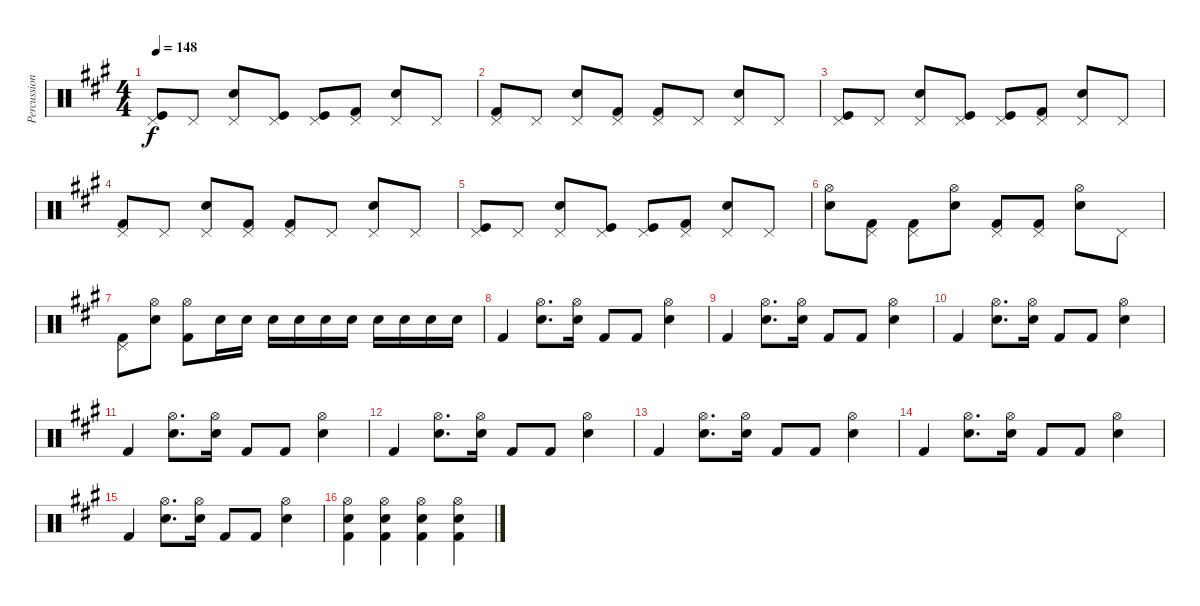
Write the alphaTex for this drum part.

\track ("Percussion" "Percussion") {instrument percussion}
\staff {score}
\articulation defaults
\ts (4 4)
\tempo 148
\clef neutral
\ks a
("Pedal Hi-Hat (hit)" "Kick (hit)").8{dy f} "Pedal Hi-Hat (hit)".8 ("Pedal Hi-Hat (hit)" "Electric Snare (hit)").8 ("Pedal Hi-Hat (hit)" "Kick (hit)").8 ("Pedal Hi-Hat (hit)" "Kick (hit)").8 ("Pedal Hi-Hat (hit)" "Kick (hit) 2").8 ("Pedal Hi-Hat (hit)" "Electric Snare (hit)").8 "Pedal Hi-Hat (hit)".8 |
("Pedal Hi-Hat (hit)" "Kick (hit) 2").8 "Pedal Hi-Hat (hit)".8 ("Pedal Hi-Hat (hit)" "Electric Snare (hit)").8 ("Pedal Hi-Hat (hit)" "Kick (hit) 2").8 ("Pedal Hi-Hat (hit)" "Kick (hit) 2").8 "Pedal Hi-Hat (hit)".8 ("Pedal Hi-Hat (hit)" "Electric Snare (hit)").8 "Pedal Hi-Hat (hit)".8 |
("Pedal Hi-Hat (hit)" "Kick (hit)").8 "Pedal Hi-Hat (hit)".8 ("Pedal Hi-Hat (hit)" "Electric Snare (hit)").8 ("Pedal Hi-Hat (hit)" "Kick (hit)").8 ("Pedal Hi-Hat (hit)" "Kick (hit)").8 ("Pedal Hi-Hat (hit)" "Kick (hit) 2").8 ("Pedal Hi-Hat (hit)" "Electric Snare (hit)").8 "Pedal Hi-Hat (hit)".8 |
("Pedal Hi-Hat (hit)" "Kick (hit) 2").8 "Pedal Hi-Hat (hit)".8 ("Pedal Hi-Hat (hit)" "Electric Snare (hit)").8 ("Pedal Hi-Hat (hit)" "Kick (hit) 2").8 ("Pedal Hi-Hat (hit)" "Kick (hit) 2").8 "Pedal Hi-Hat (hit)".8 ("Pedal Hi-Hat (hit)" "Electric Snare (hit)").8 "Pedal Hi-Hat (hit)".8 |
("Pedal Hi-Hat (hit)" "Kick (hit)").8 "Pedal Hi-Hat (hit)".8 ("Pedal Hi-Hat (hit)" "Electric Snare (hit)").8 ("Pedal Hi-Hat (hit)" "Kick (hit)").8 ("Pedal Hi-Hat (hit)" "Kick (hit)").8 ("Pedal Hi-Hat (hit)" "Kick (hit) 2").8 ("Pedal Hi-Hat (hit)" "Electric Snare (hit)").8 "Pedal Hi-Hat (hit)".8 |
("Hi-Hat (open)" "Electric Snare (hit)").8 ("Pedal Hi-Hat (hit)" "Kick (hit) 2").8 ("Pedal Hi-Hat (hit)" "Kick (hit) 2").8 ("Hi-Hat (open)" "Electric Snare (hit)").8 ("Pedal Hi-Hat (hit)" "Kick (hit) 2").8 ("Pedal Hi-Hat (hit)" "Kick (hit) 2").8 ("Hi-Hat (open)" "Electric Snare (hit)").8 "Pedal Hi-Hat (hit)".8 |
("Pedal Hi-Hat (hit)" "Kick (hit) 2").8 ("Hi-Hat (open)" "Electric Snare (hit)").8 ("Hi-Hat (open)" "Kick (hit) 2").8 "Electric Snare (hit)".16 "Electric Snare (hit)".16 "Electric Snare (hit)".16 "Electric Snare (hit)".16 "Electric Snare (hit)".16 "Electric Snare (hit)".16 "Electric Snare (hit)".16 "Electric Snare (hit)".16 "Electric Snare (hit)".16 "Electric Snare (hit)".16 |
"Kick (hit) 2".4 ("Hi-Hat (open)" "Electric Snare (hit)").8{d} ("Hi-Hat (open)" "Electric Snare (hit)").16 "Kick (hit) 2".8 "Kick (hit) 2".8 ("Hi-Hat (open)" "Electric Snare (hit)").4 |
"Kick (hit) 2".4 ("Hi-Hat (open)" "Electric Snare (hit)").8{d} ("Hi-Hat (open)" "Electric Snare (hit)").16 "Kick (hit) 2".8 "Kick (hit) 2".8 ("Hi-Hat (open)" "Electric Snare (hit)").4 |
"Kick (hit) 2".4 ("Hi-Hat (open)" "Electric Snare (hit)").8{d} ("Hi-Hat (open)" "Electric Snare (hit)").16 "Kick (hit) 2".8 "Kick (hit) 2".8 ("Hi-Hat (open)" "Electric Snare (hit)").4 |
"Kick (hit) 2".4 ("Hi-Hat (open)" "Electric Snare (hit)").8{d} ("Hi-Hat (open)" "Electric Snare (hit)").16 "Kick (hit) 2".8 "Kick (hit) 2".8 ("Hi-Hat (open)" "Electric Snare (hit)").4 |
"Kick (hit) 2".4 ("Hi-Hat (open)" "Electric Snare (hit)").8{d} ("Hi-Hat (open)" "Electric Snare (hit)").16 "Kick (hit) 2".8 "Kick (hit) 2".8 ("Hi-Hat (open)" "Electric Snare (hit)").4 |
"Kick (hit) 2".4 ("Hi-Hat (open)" "Electric Snare (hit)").8{d} ("Hi-Hat (open)" "Electric Snare (hit)").16 "Kick (hit) 2".8 "Kick (hit) 2".8 ("Hi-Hat (open)" "Electric Snare (hit)").4 |
"Kick (hit) 2".4 ("Hi-Hat (open)" "Electric Snare (hit)").8{d} ("Hi-Hat (open)" "Electric Snare (hit)").16 "Kick (hit) 2".8 "Kick (hit) 2".8 ("Hi-Hat (open)" "Electric Snare (hit)").4 |
"Kick (hit) 2".4 ("Hi-Hat (open)" "Electric Snare (hit)").8{d} ("Hi-Hat (open)" "Electric Snare (hit)").16 "Kick (hit) 2".8 "Kick (hit) 2".8 ("Hi-Hat (open)" "Electric Snare (hit)").4 |
("Hi-Hat (open)" "Electric Snare (hit)" "Kick (hit) 2").4 ("Hi-Hat (open)" "Electric Snare (hit)" "Kick (hit) 2").4 ("Hi-Hat (open)" "Electric Snare (hit)" "Kick (hit) 2").4 ("Hi-Hat (open)" "Electric Snare (hit)" "Kick (hit) 2").4
